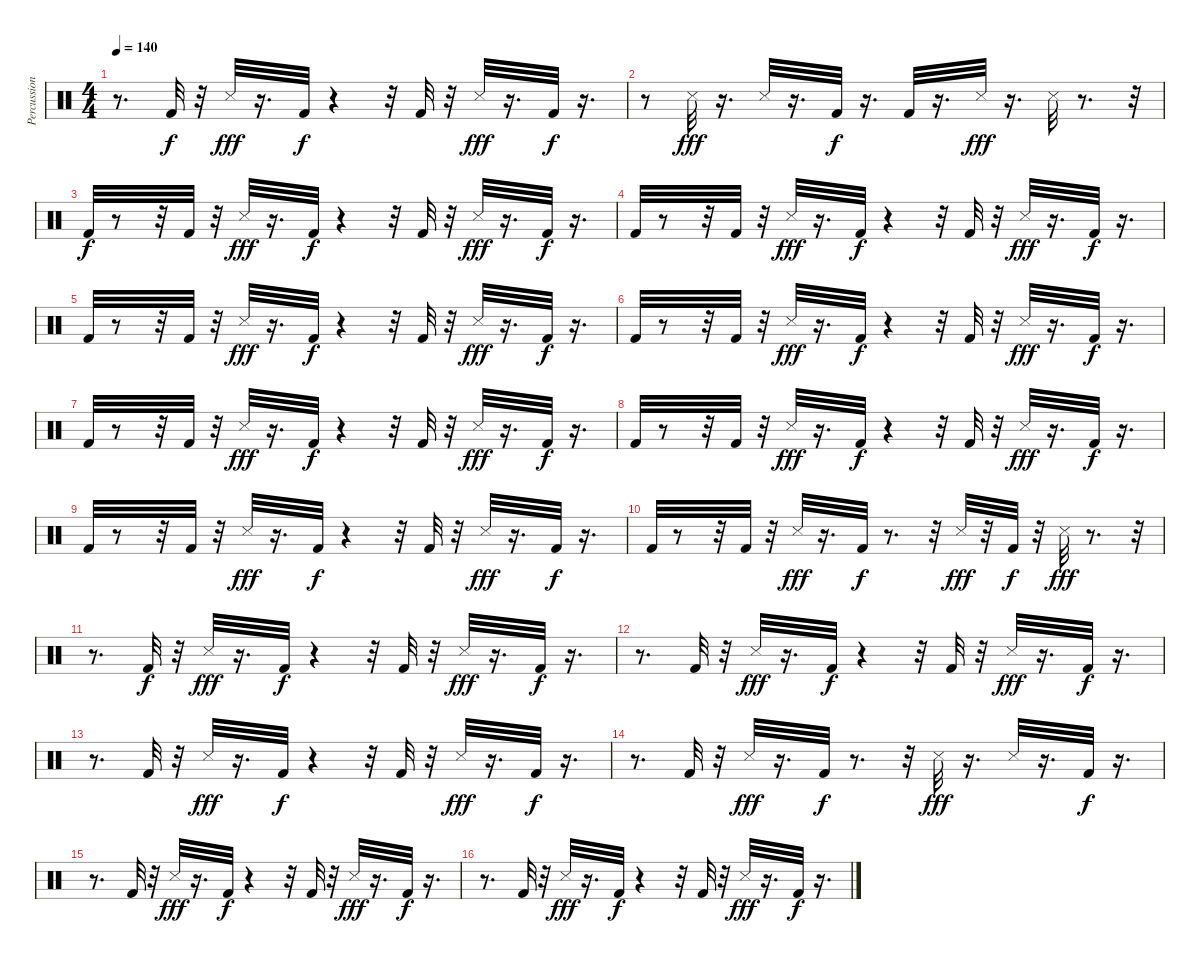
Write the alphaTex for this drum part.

\track ("Percussion" "Percussion") {instrument percussion}
\staff {score}
\articulation defaults
\ts (4 4)
\tempo 140
\clef neutral
\ks c
r.8{d dy f} "Kick (hit) 2".32 r.32 "Snare (side stick) 3".32{dy fff} r.16{d} "Kick (hit) 2".32{dy f} r.4 r.32 "Kick (hit) 2".32 r.32 "Snare (side stick) 3".32{dy fff} r.16{d} "Kick (hit) 2".32{dy f} r.16{d} |
r.8 "Snare (side stick) 3".32{dy fff} r.16{d} "Snare (side stick) 3".32 r.16{d} "Kick (hit) 2".32{dy f} r.16{d} "Kick (hit) 2".32 r.16{d} "Snare (side stick) 3".32{dy fff} r.16{d} "Snare (side stick) 3".32 r.8{d} r.32 |
"Kick (hit) 2".32{dy f} r.8 r.32 "Kick (hit) 2".32 r.32 "Snare (side stick) 3".32{dy fff} r.16{d} "Kick (hit) 2".32{dy f} r.4 r.32 "Kick (hit) 2".32 r.32 "Snare (side stick) 3".32{dy fff} r.16{d} "Kick (hit) 2".32{dy f} r.16{d} |
"Kick (hit) 2".32 r.8 r.32 "Kick (hit) 2".32 r.32 "Snare (side stick) 3".32{dy fff} r.16{d} "Kick (hit) 2".32{dy f} r.4 r.32 "Kick (hit) 2".32 r.32 "Snare (side stick) 3".32{dy fff} r.16{d} "Kick (hit) 2".32{dy f} r.16{d} |
"Kick (hit) 2".32 r.8 r.32 "Kick (hit) 2".32 r.32 "Snare (side stick) 3".32{dy fff} r.16{d} "Kick (hit) 2".32{dy f} r.4 r.32 "Kick (hit) 2".32 r.32 "Snare (side stick) 3".32{dy fff} r.16{d} "Kick (hit) 2".32{dy f} r.16{d} |
"Kick (hit) 2".32 r.8 r.32 "Kick (hit) 2".32 r.32 "Snare (side stick) 3".32{dy fff} r.16{d} "Kick (hit) 2".32{dy f} r.4 r.32 "Kick (hit) 2".32 r.32 "Snare (side stick) 3".32{dy fff} r.16{d} "Kick (hit) 2".32{dy f} r.16{d} |
"Kick (hit) 2".32 r.8 r.32 "Kick (hit) 2".32 r.32 "Snare (side stick) 3".32{dy fff} r.16{d} "Kick (hit) 2".32{dy f} r.4 r.32 "Kick (hit) 2".32 r.32 "Snare (side stick) 3".32{dy fff} r.16{d} "Kick (hit) 2".32{dy f} r.16{d} |
"Kick (hit) 2".32 r.8 r.32 "Kick (hit) 2".32 r.32 "Snare (side stick) 3".32{dy fff} r.16{d} "Kick (hit) 2".32{dy f} r.4 r.32 "Kick (hit) 2".32 r.32 "Snare (side stick) 3".32{dy fff} r.16{d} "Kick (hit) 2".32{dy f} r.16{d} |
"Kick (hit) 2".32 r.8 r.32 "Kick (hit) 2".32 r.32 "Snare (side stick) 3".32{dy fff} r.16{d} "Kick (hit) 2".32{dy f} r.4 r.32 "Kick (hit) 2".32 r.32 "Snare (side stick) 3".32{dy fff} r.16{d} "Kick (hit) 2".32{dy f} r.16{d} |
"Kick (hit) 2".32 r.8 r.32 "Kick (hit) 2".32 r.32 "Snare (side stick) 3".32{dy fff} r.16{d} "Kick (hit) 2".32{dy f} r.8{d} r.32 "Snare (side stick) 3".32{dy fff} r.32 "Kick (hit) 2".32{dy f} r.32 "Snare (side stick) 3".32{dy fff} r.8{d} r.32 |
r.8{d} "Kick (hit) 2".32{dy f} r.32 "Snare (side stick) 3".32{dy fff} r.16{d} "Kick (hit) 2".32{dy f} r.4 r.32 "Kick (hit) 2".32 r.32 "Snare (side stick) 3".32{dy fff} r.16{d} "Kick (hit) 2".32{dy f} r.16{d} |
r.8{d} "Kick (hit) 2".32 r.32 "Snare (side stick) 3".32{dy fff} r.16{d} "Kick (hit) 2".32{dy f} r.4 r.32 "Kick (hit) 2".32 r.32 "Snare (side stick) 3".32{dy fff} r.16{d} "Kick (hit) 2".32{dy f} r.16{d} |
r.8{d} "Kick (hit) 2".32 r.32 "Snare (side stick) 3".32{dy fff} r.16{d} "Kick (hit) 2".32{dy f} r.4 r.32 "Kick (hit) 2".32 r.32 "Snare (side stick) 3".32{dy fff} r.16{d} "Kick (hit) 2".32{dy f} r.16{d} |
r.8{d} "Kick (hit) 2".32 r.32 "Snare (side stick) 3".32{dy fff} r.16{d} "Kick (hit) 2".32{dy f} r.8{d} r.32 "Snare (side stick) 3".32{dy fff} r.16{d} "Snare (side stick) 3".32 r.16{d} "Kick (hit) 2".32{dy f} r.16{d} |
r.8{d} "Kick (hit) 2".32 r.32 "Snare (side stick) 3".32{dy fff} r.16{d} "Kick (hit) 2".32{dy f} r.4 r.32 "Kick (hit) 2".32 r.32 "Snare (side stick) 3".32{dy fff} r.16{d} "Kick (hit) 2".32{dy f} r.16{d} |
r.8{d} "Kick (hit) 2".32 r.32 "Snare (side stick) 3".32{dy fff} r.16{d} "Kick (hit) 2".32{dy f} r.4 r.32 "Kick (hit) 2".32 r.32 "Snare (side stick) 3".32{dy fff} r.16{d} "Kick (hit) 2".32{dy f} r.16{d}
